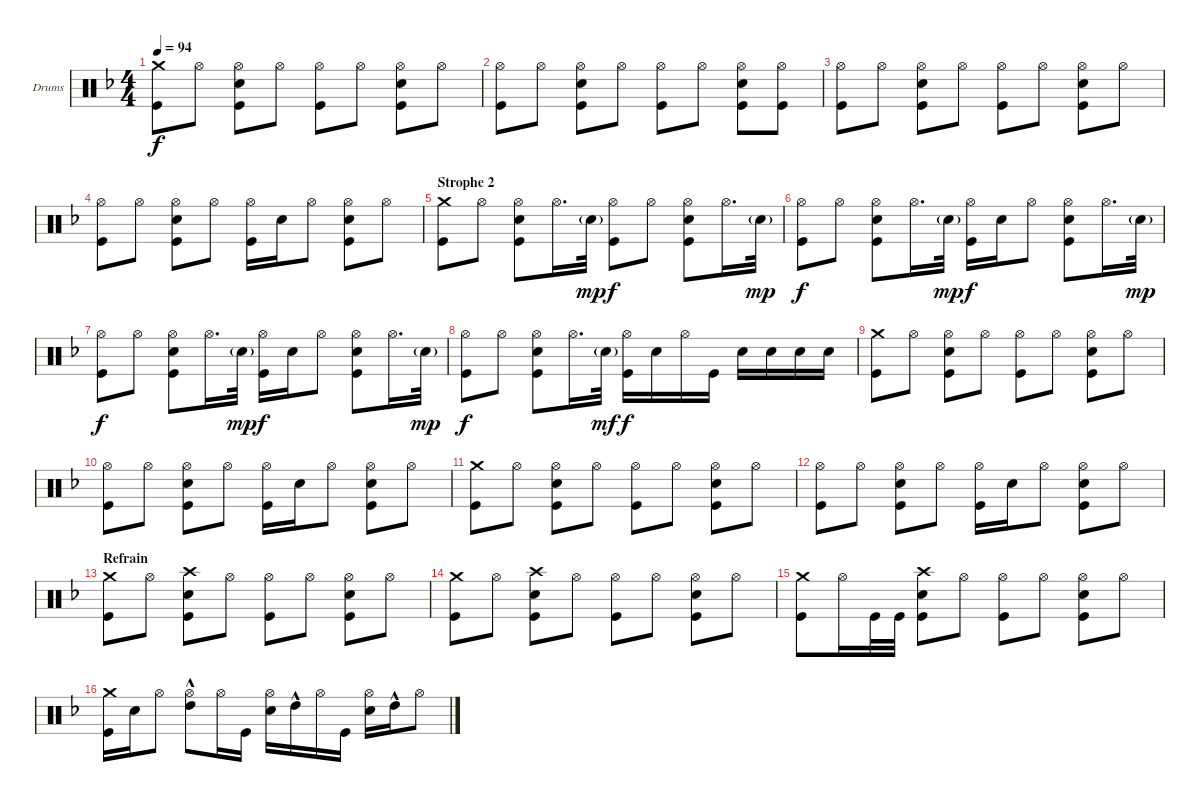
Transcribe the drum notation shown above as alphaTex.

\defaultSystemsLayout 4
\bracketExtendMode groupsimilarinstruments
\firstSystemTrackNameOrientation horizontal
\otherSystemsTrackNameOrientation horizontal
\track ("Drumkit" "Drums") {instrument percussion}
\staff {score}
\articulation defaults
\ts (4 4)
\tempo 94
\clef neutral
\ks dminor
("Kick (hit)" "Crash medium (hit)").8{dy f} "Hi-Hat (open)".8 ("Kick (hit)" "Snare (hit) 2" "Hi-Hat (open)").8 "Hi-Hat (open)".8 ("Hi-Hat (open)" "Kick (hit)").8 "Hi-Hat (open)".8 ("Hi-Hat (open)" "Kick (hit)" "Snare (hit) 2").8 "Hi-Hat (open)".8 |
("Kick (hit)" "Hi-Hat (open)").8 "Hi-Hat (open)".8 ("Kick (hit)" "Snare (hit) 2" "Hi-Hat (open)").8 "Hi-Hat (open)".8 ("Hi-Hat (open)" "Kick (hit)").8 "Hi-Hat (open)".8 ("Hi-Hat (open)" "Kick (hit)" "Snare (hit) 2").8 ("Hi-Hat (open)" "Kick (hit)").8 |
("Kick (hit)" "Hi-Hat (open)").8 "Hi-Hat (open)".8 ("Kick (hit)" "Snare (hit) 2" "Hi-Hat (open)").8 "Hi-Hat (open)".8 ("Hi-Hat (open)" "Kick (hit)").8 "Hi-Hat (open)".8 ("Hi-Hat (open)" "Kick (hit)" "Snare (hit) 2").8 "Hi-Hat (open)".8 |
("Kick (hit)" "Hi-Hat (open)").8 "Hi-Hat (open)".8 ("Kick (hit)" "Snare (hit) 2" "Hi-Hat (open)").8 "Hi-Hat (open)".8 ("Hi-Hat (open)" "Kick (hit)").16 "Snare (hit) 2".16 "Hi-Hat (open)".8 ("Hi-Hat (open)" "Kick (hit)" "Snare (hit) 2").8 "Hi-Hat (open)".8 |
\section ("" "Strophe 2")
("Kick (hit)" "Crash medium (hit)").8 "Hi-Hat (open)".8 ("Kick (hit)" "Snare (hit) 2" "Hi-Hat (open)").8 "Hi-Hat (open)".16{d} "Snare (hit) 2"{g}.32{dy mp} ("Hi-Hat (open)" "Kick (hit)").8{dy f} "Hi-Hat (open)".8 ("Hi-Hat (open)" "Kick (hit)" "Snare (hit) 2").8 "Hi-Hat (open)".16{d} "Snare (hit) 2"{g}.32{dy mp} |
("Kick (hit)" "Hi-Hat (open)").8{dy f} "Hi-Hat (open)".8 ("Kick (hit)" "Snare (hit) 2" "Hi-Hat (open)").8 "Hi-Hat (open)".16{d} "Snare (hit) 2"{g}.32{dy mp} ("Hi-Hat (open)" "Kick (hit)").16{dy f} "Snare (hit) 2".16 "Hi-Hat (open)".8 ("Hi-Hat (open)" "Kick (hit)" "Snare (hit) 2").8 "Hi-Hat (open)".16{d} "Snare (hit) 2"{g}.32{dy mp} |
("Kick (hit)" "Hi-Hat (open)").8{dy f} "Hi-Hat (open)".8 ("Kick (hit)" "Snare (hit) 2" "Hi-Hat (open)").8 "Hi-Hat (open)".16{d} "Snare (hit) 2"{g}.32{dy mp} ("Hi-Hat (open)" "Kick (hit)").16{dy f} "Snare (hit) 2".16 "Hi-Hat (open)".8 ("Hi-Hat (open)" "Kick (hit)" "Snare (hit) 2").8 "Hi-Hat (open)".16{d} "Snare (hit) 2"{g}.32{dy mp} |
("Kick (hit)" "Hi-Hat (open)").8{dy f} "Hi-Hat (open)".8 ("Kick (hit)" "Snare (hit) 2" "Hi-Hat (open)").8 "Hi-Hat (open)".16{d} "Snare (hit) 2"{g}.32{dy mf} ("Hi-Hat (open)" "Kick (hit)").16{dy f} "Snare (hit) 2".16 "Hi-Hat (open)".16 "Kick (hit)".16 "Snare (hit) 2".16 "Snare (hit) 2".16 "Snare (hit) 2".16 "Snare (hit) 2".16 |
("Kick (hit)" "Crash medium (hit)").8 "Hi-Hat (open)".8 ("Kick (hit)" "Snare (hit) 2" "Hi-Hat (open)").8 "Hi-Hat (open)".8 ("Hi-Hat (open)" "Kick (hit)").8 "Hi-Hat (open)".8 ("Hi-Hat (open)" "Kick (hit)" "Snare (hit) 2").8 "Hi-Hat (open)".8 |
("Kick (hit)" "Hi-Hat (open)").8 "Hi-Hat (open)".8 ("Kick (hit)" "Snare (hit) 2" "Hi-Hat (open)").8 "Hi-Hat (open)".8 ("Hi-Hat (open)" "Kick (hit)").16 "Snare (hit) 2".16 "Hi-Hat (open)".8 ("Hi-Hat (open)" "Kick (hit)" "Snare (hit) 2").8 "Hi-Hat (open)".8 |
("Kick (hit)" "Crash medium (hit)").8 "Hi-Hat (open)".8 ("Kick (hit)" "Snare (hit) 2" "Hi-Hat (open)").8 "Hi-Hat (open)".8 ("Hi-Hat (open)" "Kick (hit)").8 "Hi-Hat (open)".8 ("Hi-Hat (open)" "Kick (hit)" "Snare (hit) 2").8 "Hi-Hat (open)".8 |
("Kick (hit)" "Hi-Hat (open)").8 "Hi-Hat (open)".8 ("Kick (hit)" "Snare (hit) 2" "Hi-Hat (open)").8 "Hi-Hat (open)".8 ("Hi-Hat (open)" "Kick (hit)").16 "Snare (hit) 2".16 "Hi-Hat (open)".8 ("Hi-Hat (open)" "Kick (hit)" "Snare (hit) 2").8 "Hi-Hat (open)".8 |
\section ("" "Refrain")
("Kick (hit)" "Crash medium (hit)").8 "Hi-Hat (open)".8 ("Crash high (hit)" "Snare (hit) 2" "Kick (hit)").8 "Hi-Hat (open)".8 ("Hi-Hat (open)" "Kick (hit)").8 "Hi-Hat (open)".8 ("Hi-Hat (open)" "Kick (hit)" "Snare (hit) 2").8 "Hi-Hat (open)".8 |
("Kick (hit)" "Crash medium (hit)").8 "Hi-Hat (open)".8 ("Crash high (hit)" "Snare (hit) 2" "Kick (hit)").8 "Hi-Hat (open)".8 ("Hi-Hat (open)" "Kick (hit)").8 "Hi-Hat (open)".8 ("Hi-Hat (open)" "Kick (hit)" "Snare (hit) 2").8 "Hi-Hat (open)".8 |
("Kick (hit)" "Crash medium (hit)").8 "Hi-Hat (open)".16 "Kick (hit)".32 "Kick (hit)".32 ("Crash high (hit)" "Snare (hit) 2" "Kick (hit)").8 "Hi-Hat (open)".8 ("Hi-Hat (open)" "Kick (hit)").8 "Hi-Hat (open)".8 ("Hi-Hat (open)" "Kick (hit)" "Snare (hit) 2").8 "Hi-Hat (open)".8 |
("Kick (hit)" "Crash medium (hit)").16 "Snare (hit) 2".16 "Hi-Hat (open)".8 ("High Tom (hit)"{hac} "Hi-Hat (open)").8 "Hi-Hat (open)".16 "Kick (hit)".16 ("Hi-Hat (open)" "Snare (hit) 2").16 "High Tom (hit)"{hac}.16 "Hi-Hat (open)".16 "Kick (hit)".16 ("Hi-Hat (open)" "Snare (hit) 2").16 "High Tom (hit)"{hac}.16 "Hi-Hat (open)".8
